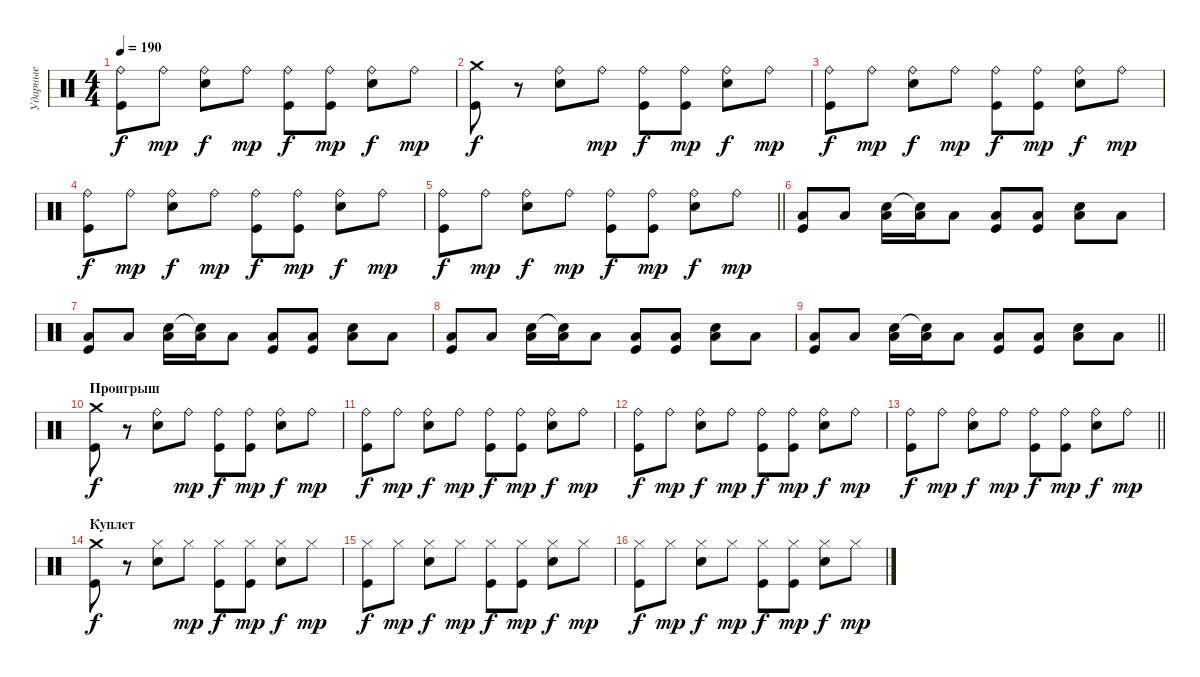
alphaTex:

\track ("Ударные" "Ударные") {instrument percussion}
\staff {score}
\articulation defaults
\ts (4 4)
\tempo 190
\clef neutral
\ks c
("Ride (bell)" "Kick (hit)").8{dy f} "Ride (bell)".8{dy mp} ("Ride (bell)" "Electric Snare (hit)").8{dy f} "Ride (bell)".8{dy mp} ("Ride (bell)" "Kick (hit)").8{dy f} ("Ride (bell)" "Kick (hit)").8{dy mp} ("Ride (bell)" "Electric Snare (hit)").8{dy f} "Ride (bell)".8{dy mp} |
("Crash medium (hit)" "Kick (hit)").8{dy f} r.8 ("Ride (bell)" "Electric Snare (hit)").8 "Ride (bell)".8{dy mp} ("Ride (bell)" "Kick (hit)").8{dy f} ("Ride (bell)" "Kick (hit)").8{dy mp} ("Ride (bell)" "Electric Snare (hit)").8{dy f} "Ride (bell)".8{dy mp} |
("Ride (bell)" "Kick (hit)").8{dy f} "Ride (bell)".8{dy mp} ("Ride (bell)" "Electric Snare (hit)").8{dy f} "Ride (bell)".8{dy mp} ("Ride (bell)" "Kick (hit)").8{dy f} ("Ride (bell)" "Kick (hit)").8{dy mp} ("Ride (bell)" "Electric Snare (hit)").8{dy f} "Ride (bell)".8{dy mp} |
("Ride (bell)" "Kick (hit)").8{dy f} "Ride (bell)".8{dy mp} ("Ride (bell)" "Electric Snare (hit)").8{dy f} "Ride (bell)".8{dy mp} ("Ride (bell)" "Kick (hit)").8{dy f} ("Ride (bell)" "Kick (hit)").8{dy mp} ("Ride (bell)" "Electric Snare (hit)").8{dy f} "Ride (bell)".8{dy mp} |
\barLineRight lightlight
("Ride (bell)" "Kick (hit)").8{dy f} "Ride (bell)".8{dy mp} ("Ride (bell)" "Electric Snare (hit)").8{dy f} "Ride (bell)".8{dy mp} ("Ride (bell)" "Kick (hit)").8{dy f} ("Ride (bell)" "Kick (hit)").8{dy mp} ("Ride (bell)" "Electric Snare (hit)").8{dy f} "Ride (bell)".8{dy mp} |
\section ("" " ")
("Low Tom (hit)" "Kick (hit)").8 "Low Tom (hit)".8 ("Low Tom (hit)" "Electric Snare (hit)").16 ("Low Tom (hit)" "Snare (hit)"{t}).16 "Low Tom (hit)".8 ("Low Tom (hit)" "Kick (hit)").8 ("Low Tom (hit)" "Kick (hit)").8 ("Low Tom (hit)" "Electric Snare (hit)").8 "Low Tom (hit)".8 |
("Low Tom (hit)" "Kick (hit)").8 "Low Tom (hit)".8 ("Low Tom (hit)" "Electric Snare (hit)").16 ("Low Tom (hit)" "Snare (hit)"{t}).16 "Low Tom (hit)".8 ("Low Tom (hit)" "Kick (hit)").8 ("Low Tom (hit)" "Kick (hit)").8 ("Low Tom (hit)" "Electric Snare (hit)").8 "Low Tom (hit)".8 |
("Low Tom (hit)" "Kick (hit)").8 "Low Tom (hit)".8 ("Low Tom (hit)" "Electric Snare (hit)").16 ("Low Tom (hit)" "Snare (hit)"{t}).16 "Low Tom (hit)".8 ("Low Tom (hit)" "Kick (hit)").8 ("Low Tom (hit)" "Kick (hit)").8 ("Low Tom (hit)" "Electric Snare (hit)").8 "Low Tom (hit)".8 |
\barLineRight lightlight
("Low Tom (hit)" "Kick (hit)").8 "Low Tom (hit)".8 ("Low Tom (hit)" "Electric Snare (hit)").16 ("Low Tom (hit)" "Snare (hit)"{t}).16 "Low Tom (hit)".8 ("Low Tom (hit)" "Kick (hit)").8 ("Low Tom (hit)" "Kick (hit)").8 ("Low Tom (hit)" "Electric Snare (hit)").8 "Low Tom (hit)".8 |
\section ("" "Проигрыш")
("Crash medium (hit)" "Kick (hit)").8{dy f} r.8 ("Ride (bell)" "Electric Snare (hit)").8 "Ride (bell)".8{dy mp} ("Ride (bell)" "Kick (hit)").8{dy f} ("Ride (bell)" "Kick (hit)").8{dy mp} ("Ride (bell)" "Electric Snare (hit)").8{dy f} "Ride (bell)".8{dy mp} |
("Ride (bell)" "Kick (hit)").8{dy f} "Ride (bell)".8{dy mp} ("Ride (bell)" "Electric Snare (hit)").8{dy f} "Ride (bell)".8{dy mp} ("Ride (bell)" "Kick (hit)").8{dy f} ("Ride (bell)" "Kick (hit)").8{dy mp} ("Ride (bell)" "Electric Snare (hit)").8{dy f} "Ride (bell)".8{dy mp} |
("Ride (bell)" "Kick (hit)").8{dy f} "Ride (bell)".8{dy mp} ("Ride (bell)" "Electric Snare (hit)").8{dy f} "Ride (bell)".8{dy mp} ("Ride (bell)" "Kick (hit)").8{dy f} ("Ride (bell)" "Kick (hit)").8{dy mp} ("Ride (bell)" "Electric Snare (hit)").8{dy f} "Ride (bell)".8{dy mp} |
\barLineRight lightlight
("Ride (bell)" "Kick (hit)").8{dy f} "Ride (bell)".8{dy mp} ("Ride (bell)" "Electric Snare (hit)").8{dy f} "Ride (bell)".8{dy mp} ("Ride (bell)" "Kick (hit)").8{dy f} ("Ride (bell)" "Kick (hit)").8{dy mp} ("Ride (bell)" "Electric Snare (hit)").8{dy f} "Ride (bell)".8{dy mp} |
\section ("" "Куплет")
("Crash medium (hit)" "Kick (hit)").8{dy f} r.8 ("Hi-Hat (closed)" "Electric Snare (hit)").8 "Hi-Hat (closed)".8{dy mp} ("Hi-Hat (closed)" "Kick (hit)").8{dy f} ("Hi-Hat (closed)" "Kick (hit)").8{dy mp} ("Hi-Hat (closed)" "Electric Snare (hit)").8{dy f} "Hi-Hat (closed)".8{dy mp} |
("Hi-Hat (closed)" "Kick (hit)").8{dy f} "Hi-Hat (closed)".8{dy mp} ("Hi-Hat (closed)" "Electric Snare (hit)").8{dy f} "Hi-Hat (closed)".8{dy mp} ("Hi-Hat (closed)" "Kick (hit)").8{dy f} ("Hi-Hat (closed)" "Kick (hit)").8{dy mp} ("Hi-Hat (closed)" "Electric Snare (hit)").8{dy f} "Hi-Hat (closed)".8{dy mp} |
("Hi-Hat (closed)" "Kick (hit)").8{dy f} "Hi-Hat (closed)".8{dy mp} ("Hi-Hat (closed)" "Electric Snare (hit)").8{dy f} "Hi-Hat (closed)".8{dy mp} ("Hi-Hat (closed)" "Kick (hit)").8{dy f} ("Hi-Hat (closed)" "Kick (hit)").8{dy mp} ("Hi-Hat (closed)" "Electric Snare (hit)").8{dy f} "Hi-Hat (closed)".8{dy mp}
